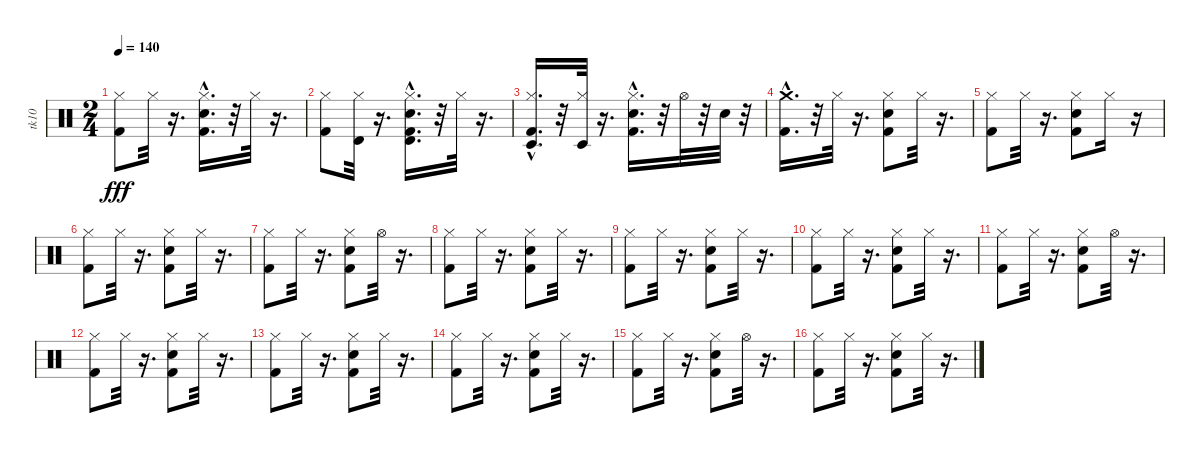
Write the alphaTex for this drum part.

\track ("tk10" "tk10") {instrument percussion}
\staff {score}
\articulation defaults
\ts (2 4)
\tempo 140
\clef neutral
\ks c
("Kick (hit) 2" "Hi-Hat (closed)").8{dy fff} "Hi-Hat (closed)".32 r.16{d} ("Hi-Hat (closed)" "Snare (hit) 2"{hac} "Kick (hit) 2"{hac}).16{d} r.32 "Hi-Hat (closed)".32 r.16{d} |
("Kick (hit) 2" "Hi-Hat (closed)").8 ("Timbale high (hit)" "Hi-Hat (closed)").32 r.16{d} ("Hi-Hat (closed)" "Kick (hit) 2"{hac} "Snare (hit) 2"{hac} "Timbale high (hit)").16{d} r.32 "Hi-Hat (closed)".32 r.16{d} |
("Kick (hit) 2"{hac} "Timbale low (hit)" "Hi-Hat (closed)").16{d} r.32 ("Timbale low (hit)" "Hi-Hat (closed)").32 r.16{d} ("Snare (hit) 2"{hac} "Kick (hit) 2"{hac} "Hi-Hat (closed)").16{d} r.32 "Hi-Hat (open)".32 r.32 "Snare (hit) 2".32 r.32 |
("Kick (hit) 2"{hac} "Crash medium (hit)").16{d} r.32 "Hi-Hat (closed)".32 r.16{d} ("Kick (hit) 2" "Snare (hit) 2" "Hi-Hat (closed)").8 "Hi-Hat (closed)".32 r.16{d} |
("Kick (hit) 2" "Hi-Hat (closed)").8 "Hi-Hat (closed)".32 r.16{d} ("Snare (hit) 2" "Kick (hit) 2" "Hi-Hat (closed)").8 "Hi-Hat (closed)".16 r.16 |
("Kick (hit) 2" "Hi-Hat (closed)").8 "Hi-Hat (closed)".32 r.16{d} ("Hi-Hat (closed)" "Snare (hit) 2" "Kick (hit) 2").8 "Hi-Hat (closed)".32 r.16{d} |
("Kick (hit) 2" "Hi-Hat (closed)").8 "Hi-Hat (closed)".32 r.16{d} ("Kick (hit) 2" "Snare (hit) 2" "Hi-Hat (closed)").8 "Hi-Hat (open)".32 r.16{d} |
("Kick (hit) 2" "Hi-Hat (closed)").8 "Hi-Hat (closed)".32 r.16{d} ("Kick (hit) 2" "Hi-Hat (closed)" "Snare (hit) 2").8 "Hi-Hat (closed)".32 r.16{d} |
("Kick (hit) 2" "Hi-Hat (closed)").8 "Hi-Hat (closed)".32 r.16{d} ("Snare (hit) 2" "Kick (hit) 2" "Hi-Hat (closed)").8 "Hi-Hat (closed)".32 r.16{d} |
("Kick (hit) 2" "Hi-Hat (closed)").8 "Hi-Hat (closed)".32 r.16{d} ("Snare (hit) 2" "Kick (hit) 2" "Hi-Hat (closed)").8 "Hi-Hat (closed)".32 r.16{d} |
("Kick (hit) 2" "Hi-Hat (closed)").8 "Hi-Hat (closed)".32 r.16{d} ("Snare (hit) 2" "Kick (hit) 2" "Hi-Hat (closed)").8 "Hi-Hat (open)".32 r.16{d} |
("Kick (hit) 2" "Hi-Hat (closed)").8 "Hi-Hat (closed)".32 r.16{d} ("Snare (hit) 2" "Kick (hit) 2" "Hi-Hat (closed)").8 "Hi-Hat (closed)".32 r.16{d} |
("Kick (hit) 2" "Hi-Hat (closed)").8 "Hi-Hat (closed)".32 r.16{d} ("Hi-Hat (closed)" "Snare (hit) 2" "Kick (hit) 2").8 "Hi-Hat (closed)".32 r.16{d} |
("Kick (hit) 2" "Hi-Hat (closed)").8 "Hi-Hat (closed)".32 r.16{d} ("Hi-Hat (closed)" "Snare (hit) 2" "Kick (hit) 2").8 "Hi-Hat (closed)".32 r.16{d} |
("Kick (hit) 2" "Hi-Hat (closed)").8 "Hi-Hat (closed)".32 r.16{d} ("Snare (hit) 2" "Kick (hit) 2" "Hi-Hat (closed)").8 "Hi-Hat (open)".32 r.16{d} |
("Kick (hit) 2" "Hi-Hat (closed)").8 "Hi-Hat (closed)".32 r.16{d} ("Snare (hit) 2" "Kick (hit) 2" "Hi-Hat (closed)").8 "Hi-Hat (closed)".32 r.16{d}
